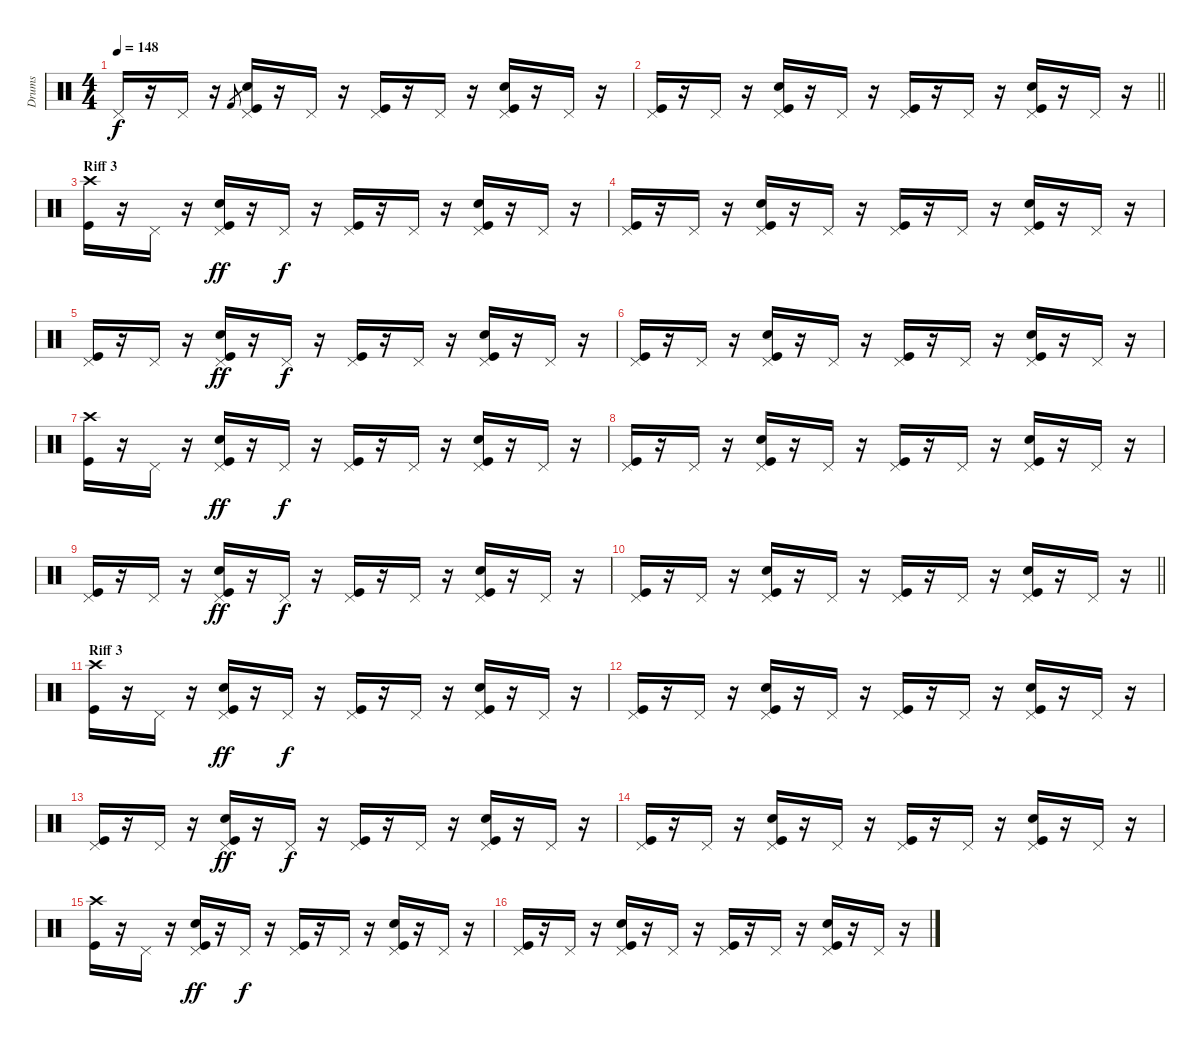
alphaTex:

\track ("Drums" "Drums") {instrument percussion}
\staff {score}
\articulation defaults
\ts (4 4)
\tempo 148
\clef neutral
\ks c "Pedal Hi-Hat (hit)".16{dy f}
r.16 "Pedal Hi-Hat (hit)".16 r.16 "Kick (hit) 2".8{gr} ("Pedal Hi-Hat (hit)" "Electric Snare (hit)" "Kick (hit)").16 r.16 "Pedal Hi-Hat (hit)".16 r.16 ("Pedal Hi-Hat (hit)" "Kick (hit)").16 r.16 "Pedal Hi-Hat (hit)".16 r.16 ("Pedal Hi-Hat (hit)" "Electric Snare (hit)" "Kick (hit)").16 r.16 "Pedal Hi-Hat (hit)".16 r.16 |
\barLineRight lightlight
("Pedal Hi-Hat (hit)" "Kick (hit)").16 r.16 "Pedal Hi-Hat (hit)".16 r.16 ("Pedal Hi-Hat (hit)" "Electric Snare (hit)" "Kick (hit)").16 r.16 "Pedal Hi-Hat (hit)".16 r.16 ("Pedal Hi-Hat (hit)" "Kick (hit)").16 r.16 "Pedal Hi-Hat (hit)".16 r.16 ("Pedal Hi-Hat (hit)" "Electric Snare (hit)" "Kick (hit)").16 r.16 "Pedal Hi-Hat (hit)".16 r.16 |
\section ("" "Riff 3")
("Crash high (hit)" "Kick (hit)").16 r.16 "Pedal Hi-Hat (hit)".16 r.16 ("Pedal Hi-Hat (hit)" "Electric Snare (hit)" "Kick (hit)").16{dy ff} r.16 "Pedal Hi-Hat (hit)".16{dy f} r.16 ("Pedal Hi-Hat (hit)" "Kick (hit)").16 r.16 "Pedal Hi-Hat (hit)".16 r.16 ("Pedal Hi-Hat (hit)" "Electric Snare (hit)" "Kick (hit)").16 r.16 "Pedal Hi-Hat (hit)".16 r.16 |
("Pedal Hi-Hat (hit)" "Kick (hit)").16 r.16 "Pedal Hi-Hat (hit)".16 r.16 ("Pedal Hi-Hat (hit)" "Electric Snare (hit)" "Kick (hit)").16 r.16 "Pedal Hi-Hat (hit)".16 r.16 ("Pedal Hi-Hat (hit)" "Kick (hit)").16 r.16 "Pedal Hi-Hat (hit)".16 r.16 ("Pedal Hi-Hat (hit)" "Electric Snare (hit)" "Kick (hit)").16 r.16 "Pedal Hi-Hat (hit)".16 r.16 |
("Pedal Hi-Hat (hit)" "Kick (hit)").16 r.16 "Pedal Hi-Hat (hit)".16 r.16 ("Pedal Hi-Hat (hit)" "Electric Snare (hit)" "Kick (hit)").16{dy ff} r.16 "Pedal Hi-Hat (hit)".16{dy f} r.16 ("Pedal Hi-Hat (hit)" "Kick (hit)").16 r.16 "Pedal Hi-Hat (hit)".16 r.16 ("Pedal Hi-Hat (hit)" "Electric Snare (hit)" "Kick (hit)").16 r.16 "Pedal Hi-Hat (hit)".16 r.16 |
("Pedal Hi-Hat (hit)" "Kick (hit)").16 r.16 "Pedal Hi-Hat (hit)".16 r.16 ("Pedal Hi-Hat (hit)" "Electric Snare (hit)" "Kick (hit)").16 r.16 "Pedal Hi-Hat (hit)".16 r.16 ("Pedal Hi-Hat (hit)" "Kick (hit)").16 r.16 "Pedal Hi-Hat (hit)".16 r.16 ("Pedal Hi-Hat (hit)" "Electric Snare (hit)" "Kick (hit)").16 r.16 "Pedal Hi-Hat (hit)".16 r.16 |
("Crash high (hit)" "Kick (hit)").16 r.16 "Pedal Hi-Hat (hit)".16 r.16 ("Pedal Hi-Hat (hit)" "Electric Snare (hit)" "Kick (hit)").16{dy ff} r.16 "Pedal Hi-Hat (hit)".16{dy f} r.16 ("Pedal Hi-Hat (hit)" "Kick (hit)").16 r.16 "Pedal Hi-Hat (hit)".16 r.16 ("Pedal Hi-Hat (hit)" "Electric Snare (hit)" "Kick (hit)").16 r.16 "Pedal Hi-Hat (hit)".16 r.16 |
("Pedal Hi-Hat (hit)" "Kick (hit)").16 r.16 "Pedal Hi-Hat (hit)".16 r.16 ("Pedal Hi-Hat (hit)" "Electric Snare (hit)" "Kick (hit)").16 r.16 "Pedal Hi-Hat (hit)".16 r.16 ("Pedal Hi-Hat (hit)" "Kick (hit)").16 r.16 "Pedal Hi-Hat (hit)".16 r.16 ("Pedal Hi-Hat (hit)" "Electric Snare (hit)" "Kick (hit)").16 r.16 "Pedal Hi-Hat (hit)".16 r.16 |
("Pedal Hi-Hat (hit)" "Kick (hit)").16 r.16 "Pedal Hi-Hat (hit)".16 r.16 ("Pedal Hi-Hat (hit)" "Electric Snare (hit)" "Kick (hit)").16{dy ff} r.16 "Pedal Hi-Hat (hit)".16{dy f} r.16 ("Pedal Hi-Hat (hit)" "Kick (hit)").16 r.16 "Pedal Hi-Hat (hit)".16 r.16 ("Pedal Hi-Hat (hit)" "Electric Snare (hit)" "Kick (hit)").16 r.16 "Pedal Hi-Hat (hit)".16 r.16 |
\barLineRight lightlight
("Pedal Hi-Hat (hit)" "Kick (hit)").16 r.16 "Pedal Hi-Hat (hit)".16 r.16 ("Pedal Hi-Hat (hit)" "Electric Snare (hit)" "Kick (hit)").16 r.16 "Pedal Hi-Hat (hit)".16 r.16 ("Pedal Hi-Hat (hit)" "Kick (hit)").16 r.16 "Pedal Hi-Hat (hit)".16 r.16 ("Pedal Hi-Hat (hit)" "Electric Snare (hit)" "Kick (hit)").16 r.16 "Pedal Hi-Hat (hit)".16 r.16 |
\section ("" "Riff 3")
("Crash high (hit)" "Kick (hit)").16 r.16 "Pedal Hi-Hat (hit)".16 r.16 ("Pedal Hi-Hat (hit)" "Electric Snare (hit)" "Kick (hit)").16{dy ff} r.16 "Pedal Hi-Hat (hit)".16{dy f} r.16 ("Pedal Hi-Hat (hit)" "Kick (hit)").16 r.16 "Pedal Hi-Hat (hit)".16 r.16 ("Pedal Hi-Hat (hit)" "Electric Snare (hit)" "Kick (hit)").16 r.16 "Pedal Hi-Hat (hit)".16 r.16 |
("Pedal Hi-Hat (hit)" "Kick (hit)").16 r.16 "Pedal Hi-Hat (hit)".16 r.16 ("Pedal Hi-Hat (hit)" "Electric Snare (hit)" "Kick (hit)").16 r.16 "Pedal Hi-Hat (hit)".16 r.16 ("Pedal Hi-Hat (hit)" "Kick (hit)").16 r.16 "Pedal Hi-Hat (hit)".16 r.16 ("Pedal Hi-Hat (hit)" "Electric Snare (hit)" "Kick (hit)").16 r.16 "Pedal Hi-Hat (hit)".16 r.16 |
("Pedal Hi-Hat (hit)" "Kick (hit)").16 r.16 "Pedal Hi-Hat (hit)".16 r.16 ("Pedal Hi-Hat (hit)" "Electric Snare (hit)" "Kick (hit)").16{dy ff} r.16 "Pedal Hi-Hat (hit)".16{dy f} r.16 ("Pedal Hi-Hat (hit)" "Kick (hit)").16 r.16 "Pedal Hi-Hat (hit)".16 r.16 ("Pedal Hi-Hat (hit)" "Electric Snare (hit)" "Kick (hit)").16 r.16 "Pedal Hi-Hat (hit)".16 r.16 |
("Pedal Hi-Hat (hit)" "Kick (hit)").16 r.16 "Pedal Hi-Hat (hit)".16 r.16 ("Pedal Hi-Hat (hit)" "Electric Snare (hit)" "Kick (hit)").16 r.16 "Pedal Hi-Hat (hit)".16 r.16 ("Pedal Hi-Hat (hit)" "Kick (hit)").16 r.16 "Pedal Hi-Hat (hit)".16 r.16 ("Pedal Hi-Hat (hit)" "Electric Snare (hit)" "Kick (hit)").16 r.16 "Pedal Hi-Hat (hit)".16 r.16 |
("Crash high (hit)" "Kick (hit)").16 r.16 "Pedal Hi-Hat (hit)".16 r.16 ("Pedal Hi-Hat (hit)" "Electric Snare (hit)" "Kick (hit)").16{dy ff} r.16 "Pedal Hi-Hat (hit)".16{dy f} r.16 ("Pedal Hi-Hat (hit)" "Kick (hit)").16 r.16 "Pedal Hi-Hat (hit)".16 r.16 ("Pedal Hi-Hat (hit)" "Electric Snare (hit)" "Kick (hit)").16 r.16 "Pedal Hi-Hat (hit)".16 r.16 |
("Pedal Hi-Hat (hit)" "Kick (hit)").16 r.16 "Pedal Hi-Hat (hit)".16 r.16 ("Pedal Hi-Hat (hit)" "Electric Snare (hit)" "Kick (hit)").16 r.16 "Pedal Hi-Hat (hit)".16 r.16 ("Pedal Hi-Hat (hit)" "Kick (hit)").16 r.16 "Pedal Hi-Hat (hit)".16 r.16 ("Pedal Hi-Hat (hit)" "Electric Snare (hit)" "Kick (hit)").16 r.16 "Pedal Hi-Hat (hit)".16 r.16
